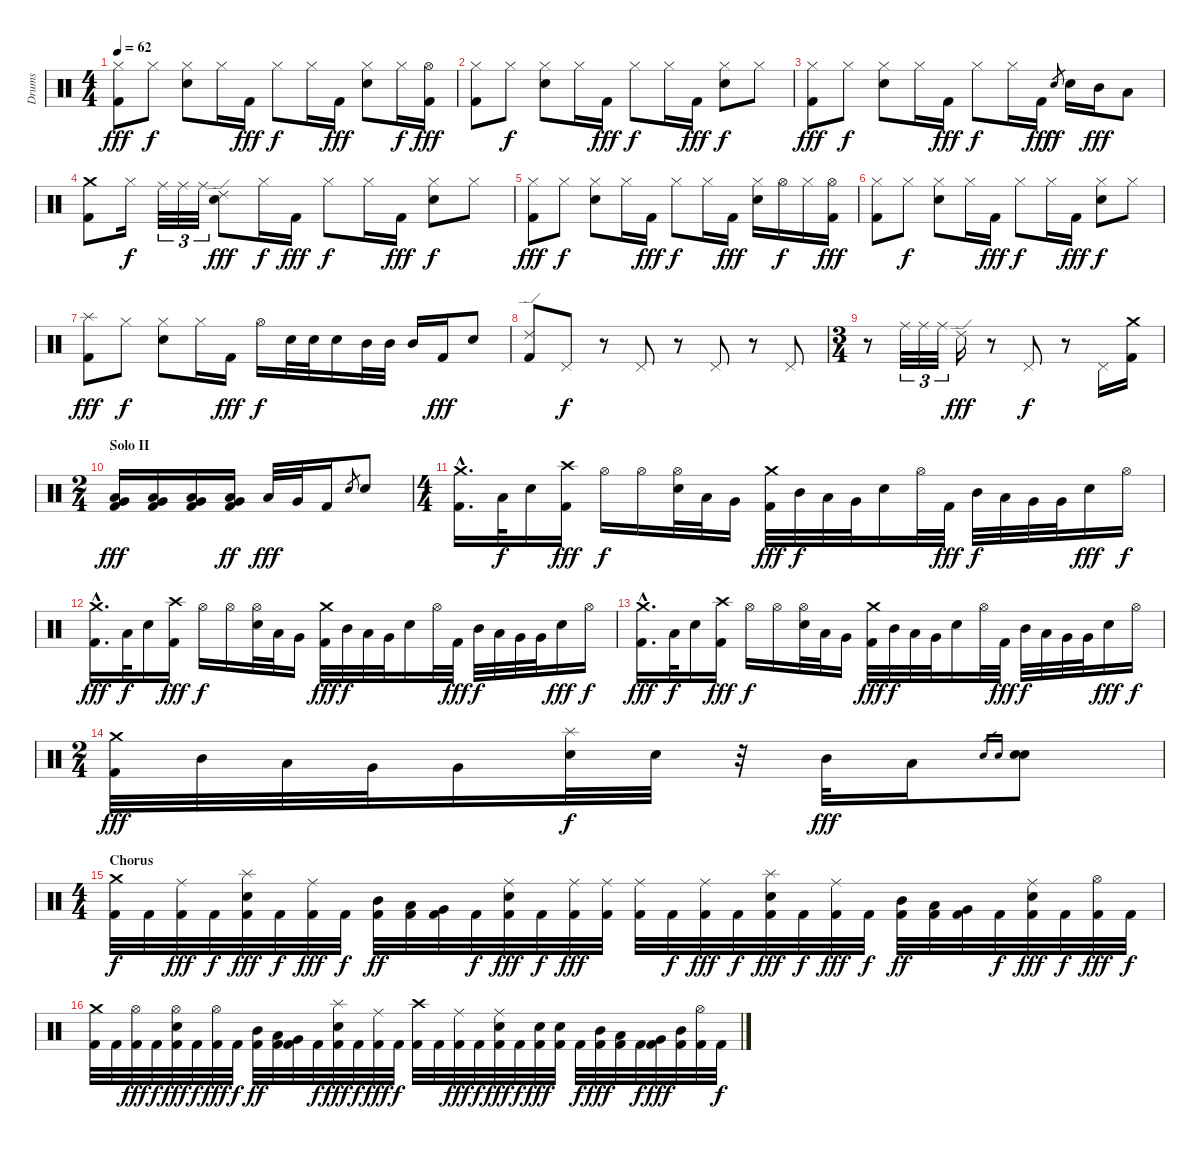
\track ("Drums" "Drums") {instrument percussion}
\staff {score}
\articulation defaults
\ts (4 4)
\tempo 62
\clef neutral
\ks c
("Hi-Hat (closed)" "Kick (hit) 2").8{dy fff} "Hi-Hat (closed)".8{dy f} ("Hi-Hat (closed)" "Electric Snare (hit)").8 "Hi-Hat (closed)".16 "Kick (hit) 2".16{dy fff} "Hi-Hat (closed)".8{dy f} "Hi-Hat (closed)".16 "Kick (hit) 2".16{dy fff} ("Hi-Hat (closed)" "Electric Snare (hit)").8 "Hi-Hat (closed)".16{dy f} ("Hi-Hat (open)" "Kick (hit) 2").16{dy fff} |
("Hi-Hat (closed)" "Kick (hit) 2").8 "Hi-Hat (closed)".8{dy f} ("Hi-Hat (closed)" "Electric Snare (hit)").8 "Hi-Hat (closed)".16 "Kick (hit) 2".16{dy fff} "Hi-Hat (closed)".8{dy f} "Hi-Hat (closed)".16 "Kick (hit) 2".16{dy fff} ("Hi-Hat (closed)" "Electric Snare (hit)").8{dy f} "Hi-Hat (closed)".8 |
("Hi-Hat (closed)" "Kick (hit) 2").8{dy fff} "Hi-Hat (closed)".8{dy f} ("Hi-Hat (closed)" "Electric Snare (hit)").8 "Hi-Hat (closed)".16 "Kick (hit) 2".16{dy fff} "Hi-Hat (closed)".8{dy f} "Hi-Hat (closed)".16 "Kick (hit) 2".16{dy fff} "Electric Snare (hit)".8{gr dy ff} "Electric Snare (hit)".16 "Mid Tom (hit)".16{dy fff} "Low Tom (hit)".8 |
("Crash medium (hit)" "Kick (hit) 2").8 "Hi-Hat (closed)".16{dy f} "Ride (middle)".32{tu (3 2)} "Ride (middle)".32{tu (3 2)} "Ride (middle)".32{tu (3 2)} ("Ride (edge) 2" "Electric Snare (hit)").8{dy fff} "Hi-Hat (closed)".16{dy f} "Kick (hit) 2".16{dy fff} "Hi-Hat (closed)".8{dy f} "Hi-Hat (closed)".16 "Kick (hit) 2".16{dy fff} ("Hi-Hat (closed)" "Electric Snare (hit)").8{dy f} "Hi-Hat (closed)".8 |
("Hi-Hat (closed)" "Kick (hit) 2").8{dy fff} "Hi-Hat (closed)".8{dy f} ("Hi-Hat (closed)" "Electric Snare (hit)").8 "Hi-Hat (closed)".16 "Kick (hit) 2".16{dy fff} "Hi-Hat (closed)".8{dy f} "Hi-Hat (closed)".16 "Kick (hit) 2".16{dy fff} ("Hi-Hat (closed)" "Electric Snare (hit)").16 "Hi-Hat (open)".16{dy f} "Hi-Hat (closed)".16 ("Hi-Hat (open)" "Kick (hit) 2").16{dy fff} |
("Hi-Hat (closed)" "Kick (hit) 2").8 "Hi-Hat (closed)".8{dy f} ("Hi-Hat (closed)" "Electric Snare (hit)").8 "Hi-Hat (closed)".16 "Kick (hit) 2".16{dy fff} "Hi-Hat (closed)".8{dy f} "Hi-Hat (closed)".16 "Kick (hit) 2".16{dy fff} ("Hi-Hat (closed)" "Electric Snare (hit)").8{dy f} "Hi-Hat (closed)".8 |
("Splash (hit)" "Kick (hit) 2").8{dy fff} "Hi-Hat (closed)".8{dy f} ("Hi-Hat (closed)" "Electric Snare (hit)").8 "Hi-Hat (closed)".16 "Kick (hit) 2".16{dy fff} "Hi-Hat (open)".16{dy f} "Electric Snare (hit)".32 "Electric Snare (hit)".32 "Electric Snare (hit)".16 "Mid Tom (hit)".32 "Mid Tom (hit)".32 "Mid Tom (hit)".16 "Kick (hit) 2".16{dy fff} "Electric Snare (hit)".8 |
("Ride (edge) 2" "Kick (hit) 2").8 "Pedal Hi-Hat (hit)".8{dy f} r.8 "Pedal Hi-Hat (hit)".8 r.8 "Pedal Hi-Hat (hit)".8 r.8 "Pedal Hi-Hat (hit)".8 |
\ts (3 4)
r.8 "Ride (middle)".32{tu (3 2)} "Ride (middle)".32{tu (3 2)} "Ride (middle)".32{tu (3 2)} "Ride (edge) 2".16{dy fff} r.8 "Pedal Hi-Hat (hit)".8{dy f} r.8 "Pedal Hi-Hat (hit)".16 ("Crash medium (hit)" "Kick (hit) 2").16 |
\ts (2 4)
\section ("" "Solo II")
("Very Low Tom (hit)" "Low Tom (hit)" "Kick (hit) 2").16{dy fff} ("Very Low Tom (hit)" "Low Tom (hit)" "Kick (hit) 2").16 ("Very Low Tom (hit)" "Low Tom (hit)" "Kick (hit) 2").16 ("Very Low Tom (hit)" "Low Tom (hit)" "Kick (hit) 2").16{dy ff} "Low Tom (hit)".32{dy fff} "Very Low Tom (hit)".32 "Kick (hit) 2".16 "Electric Snare (hit)".8{gr} "Electric Snare (hit)".8 |
\ts (4 4)
("Crash medium (hit)"{hac} "Kick (hit) 2"{hac}).16{d} "Low Tom (hit)".32{dy f} "Electric Snare (hit)".16 ("Crash high (hit)" "Kick (hit) 2").16{dy fff} "Hi-Hat (open)".16{dy f} "Hi-Hat (open)".16 ("Hi-Hat (open)" "Electric Snare (hit)").32 "Low Tom (hit)".32 "Very Low Tom (hit)".16 ("Crash medium (hit)" "Kick (hit) 2").32{dy fff} "Mid Tom (hit)".32{dy f} "Low Tom (hit)".32 "Very Low Tom (hit)".32 "Electric Snare (hit)".16 "Hi-Hat (open)".32 "Kick (hit) 2".32{dy fff} "Mid Tom (hit)".32{dy f} "Low Tom (hit)".32 "Very Low Tom (hit)".32 "Very Low Tom (hit)".32 "Electric Snare (hit)".16{dy fff} "Hi-Hat (open)".16{dy f} |
("Crash medium (hit)"{hac} "Kick (hit) 2"{hac}).16{d dy fff} "Low Tom (hit)".32{dy f} "Electric Snare (hit)".16 ("Crash high (hit)" "Kick (hit) 2").16{dy fff} "Hi-Hat (open)".16{dy f} "Hi-Hat (open)".16 ("Hi-Hat (open)" "Electric Snare (hit)").32 "Low Tom (hit)".32 "Very Low Tom (hit)".16 ("Crash medium (hit)" "Kick (hit) 2").32{dy fff} "Mid Tom (hit)".32{dy f} "Low Tom (hit)".32 "Very Low Tom (hit)".32 "Electric Snare (hit)".16 "Hi-Hat (open)".32 "Kick (hit) 2".32{dy fff} "Mid Tom (hit)".32{dy f} "Low Tom (hit)".32 "Very Low Tom (hit)".32 "Very Low Tom (hit)".32 "Electric Snare (hit)".16{dy fff} "Hi-Hat (open)".16{dy f} |
("Crash medium (hit)"{hac} "Kick (hit) 2"{hac}).16{d dy fff} "Low Tom (hit)".32{dy f} "Electric Snare (hit)".16 ("Crash high (hit)" "Kick (hit) 2").16{dy fff} "Hi-Hat (open)".16{dy f} "Hi-Hat (open)".16 ("Hi-Hat (open)" "Electric Snare (hit)").32 "Low Tom (hit)".32 "Very Low Tom (hit)".16 ("Crash medium (hit)" "Kick (hit) 2").32{dy fff} "Mid Tom (hit)".32{dy f} "Low Tom (hit)".32 "Very Low Tom (hit)".32 "Electric Snare (hit)".16 "Hi-Hat (open)".32 "Kick (hit) 2".32{dy fff} "Mid Tom (hit)".32{dy f} "Low Tom (hit)".32 "Very Low Tom (hit)".32 "Very Low Tom (hit)".32 "Electric Snare (hit)".16{dy fff} "Hi-Hat (open)".16{dy f} |
\ts (2 4)
("Crash medium (hit)" "Kick (hit) 2").32{dy fff} "Mid Tom (hit)".32 "Low Tom (hit)".32 "Very Low Tom (hit)".32 "Very Low Tom (hit)".16 ("Splash (hit)" "Electric Snare (hit)").32{dy f} "Electric Snare (hit)".32 r.32 "Mid Tom (hit)".32{dy fff} "Low Tom (hit)".16 "Electric Snare (hit)".16{gr} "Electric Snare (hit)".16{gr} ("Electric Snare (hit)" "Electric Snare (hit)").8 |
\ts (4 4)
\section ("" "Chorus")
("Crash medium (hit)" "Kick (hit) 2").32{dy f} "Kick (hit) 2".32 ("Ride (middle)" "Kick (hit) 2").32{dy fff} "Kick (hit) 2".32{dy f} ("Splash (hit)" "Electric Snare (hit)" "Kick (hit) 2").32{dy fff} "Kick (hit) 2".32{dy f} ("Ride (middle)" "Kick (hit) 2").32{dy fff} "Kick (hit) 2".32{dy f} ("Mid Tom (hit)" "Kick (hit) 2").32{dy ff} ("Low Tom (hit)" "Kick (hit) 2").32 ("Very Low Tom (hit)" "Kick (hit) 2").32 "Kick (hit) 2".32{dy f} ("Ride (middle)" "Electric Snare (hit)" "Kick (hit) 2").32{dy fff} "Kick (hit) 2".32{dy f} ("Ride (middle)" "Kick (hit) 2").32{dy fff} ("Ride (middle)" "Kick (hit) 2").32 ("Ride (middle)" "Kick (hit) 2").32 "Kick (hit) 2".32{dy f} ("Ride (middle)" "Kick (hit) 2").32{dy fff} "Kick (hit) 2".32{dy f} ("Splash (hit)" "Electric Snare (hit)" "Kick (hit) 2").32{dy fff} "Kick (hit) 2".32{dy f} ("Ride (middle)" "Kick (hit) 2").32{dy fff} "Kick (hit) 2".32{dy f} ("Mid Tom (hit)" "Kick (hit) 2").32{dy ff} ("Low Tom (hit)" "Kick (hit) 2").32 ("Very Low Tom (hit)" "Kick (hit) 2").32 "Kick (hit) 2".32{dy f} ("Ride (middle)" "Electric Snare (hit)" "Kick (hit) 2").32{dy fff} "Kick (hit) 2".32{dy f} ("Hi-Hat (open)" "Kick (hit) 2").32{dy fff} "Kick (hit) 2".32{dy f} |
("Crash medium (hit)" "Kick (hit) 2").32 "Kick (hit) 2".32 ("Hi-Hat (open)" "Kick (hit) 2").32{dy fff} "Kick (hit) 2".32{dy f} ("Hi-Hat (open)" "Electric Snare (hit)" "Kick (hit) 2").32{dy fff} "Kick (hit) 2".32{dy f} ("Hi-Hat (open)" "Kick (hit) 2").32{dy fff} "Kick (hit) 2".32{dy f} ("Mid Tom (hit)" "Kick (hit) 2").32{dy ff} ("Low Tom (hit)" "Kick (hit) 2").32 ("Very Low Tom (hit)" "Kick (hit) 2").32 "Kick (hit) 2".32{dy f} ("Splash (hit)" "Electric Snare (hit)" "Kick (hit) 2").32{dy fff} "Kick (hit) 2".32{dy f} ("Ride (middle)" "Kick (hit) 2").32{dy fff} "Kick (hit) 2".32{dy f} ("Crash high (hit)" "Kick (hit) 2").32 "Kick (hit) 2".32 ("Ride (middle)" "Kick (hit) 2").32{dy fff} "Kick (hit) 2".32{dy f} ("Ride (middle)" "Electric Snare (hit)" "Kick (hit) 2").32{dy fff} "Kick (hit) 2".32{dy f} ("Electric Snare (hit)" "Kick (hit) 2").32{dy fff} ("Electric Snare (hit)" "Kick (hit) 2").32 "Kick (hit) 2".32{dy f} ("Mid Tom (hit)" "Kick (hit) 2").32{dy fff} ("Low Tom (hit)" "Kick (hit) 2").32 "Kick (hit) 2".32{dy f} ("Very Low Tom (hit)" "Kick (hit) 2").32{dy fff} ("Mid Tom (hit)" "Kick (hit) 2").32 ("Hi-Hat (open)" "Kick (hit) 2").32 "Kick (hit) 2".32{dy f}
